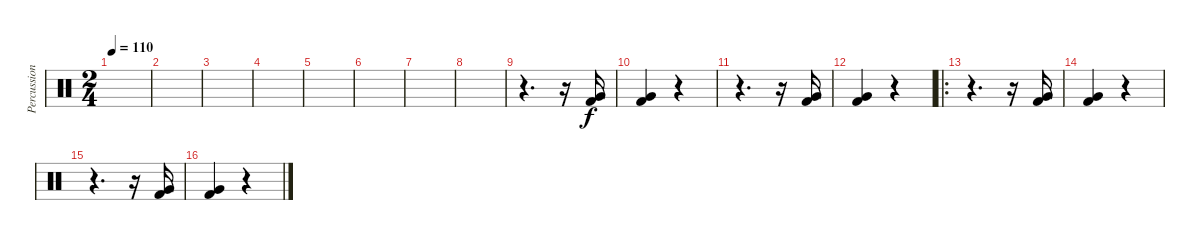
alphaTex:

\track ("Percussions" "Percussion") {instrument percussion}
\staff {score}
\articulation defaults
\ts (2 4)
\tempo 110
\clef neutral
\ks c
|
|
|
|
|
|
|
|
r.4{d} r.16 ("Very Low Tom (hit)" "Kick (hit) 2").16 |
("Very Low Tom (hit)" "Kick (hit) 2").4 r.4 |
r.4{d} r.16 ("Very Low Tom (hit)" "Kick (hit) 2").16 |
("Very Low Tom (hit)" "Kick (hit) 2").4 r.4 |
\ro
r.4{d} r.16 ("Very Low Tom (hit)" "Kick (hit) 2").16 |
("Very Low Tom (hit)" "Kick (hit) 2").4 r.4 |
r.4{d} r.16 ("Very Low Tom (hit)" "Kick (hit) 2").16 |
("Very Low Tom (hit)" "Kick (hit) 2").4 r.4
